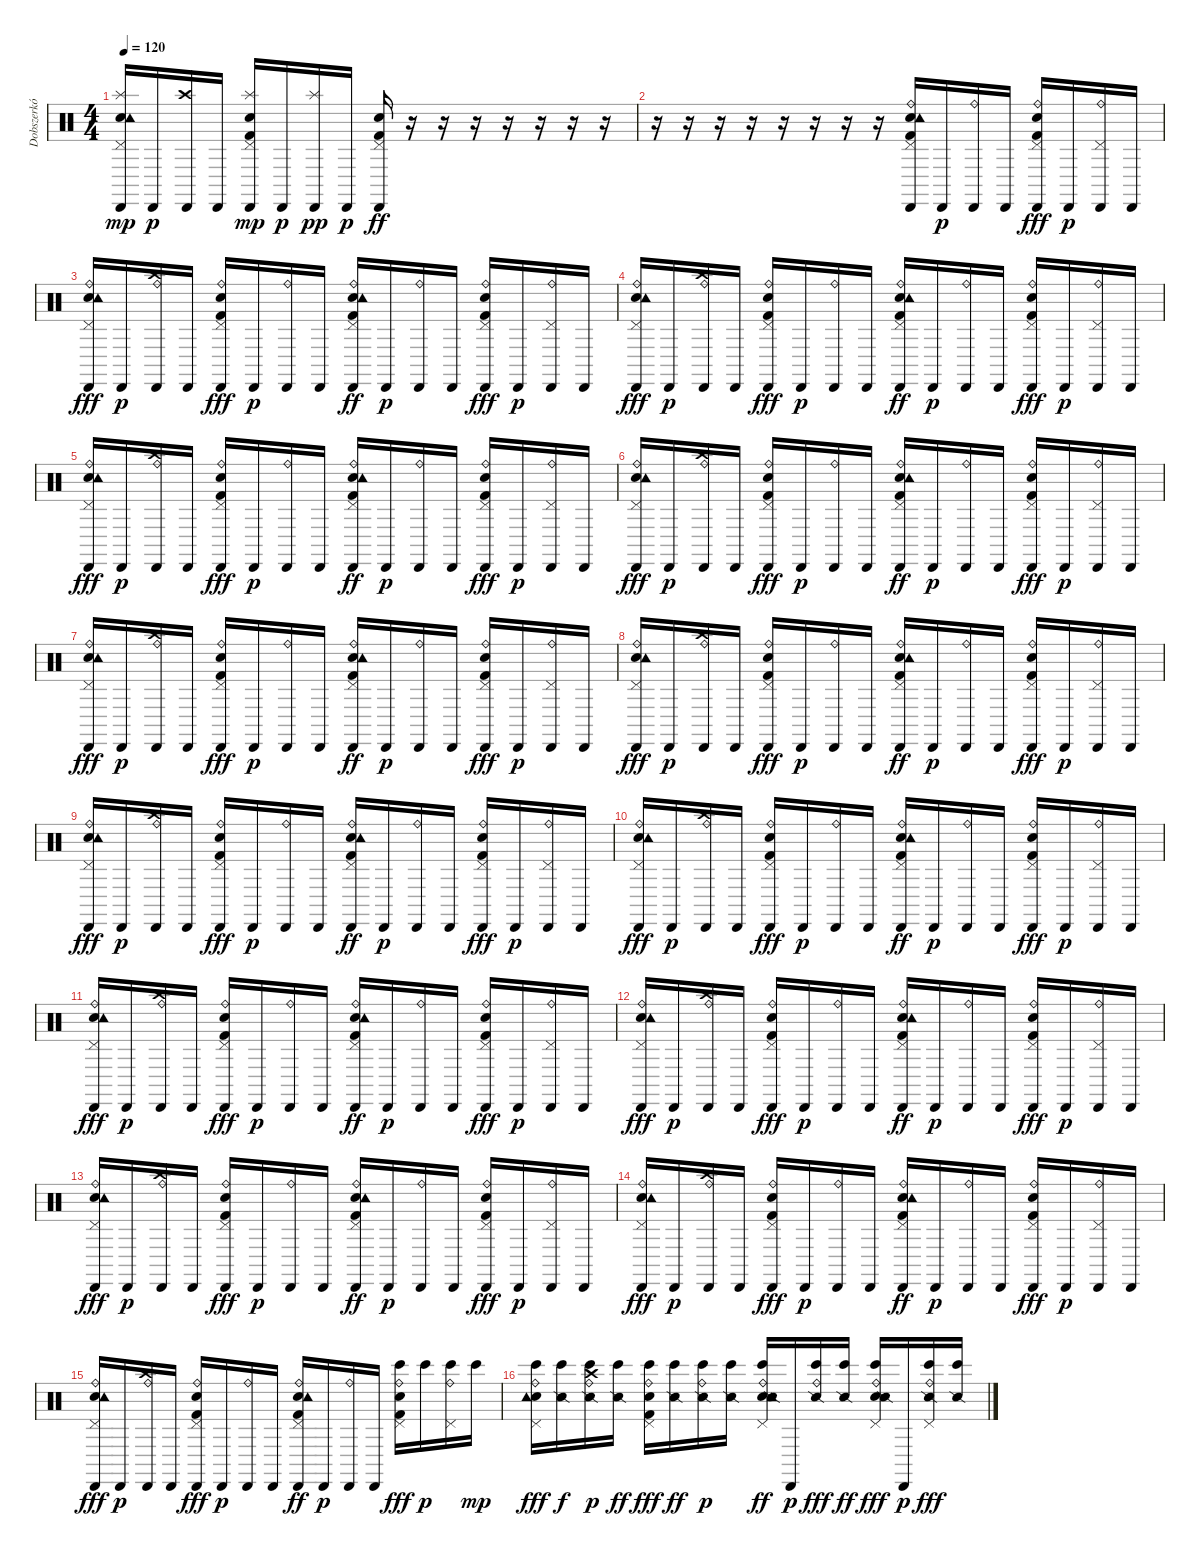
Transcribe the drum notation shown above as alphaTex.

\track ("Dobszerkó" "Dobszerkó") {instrument percussion}
\staff {score}
\articulation defaults
\ts (4 4)
\tempo 120
\clef neutral
\ks c
("Cabasa (hit)" "Snare (hit) 2" "Tambourine (hit)" "Pedal Hi-Hat (hit)" "Splash (hit)").16{dy mp} "Cabasa (hit)".16{dy p} ("Cabasa (hit)" "Crash high (hit)").16 "Cabasa (hit)".16 ("Electric Snare (hit)" "Cabasa (hit)" "Kick (hit) 2" "Pedal Hi-Hat (hit)" "Splash (hit)").16{dy mp} "Cabasa (hit)".16{dy p} ("Cabasa (hit)" "Splash (hit)").16{dy pp} "Cabasa (hit)".16{dy p} ("Snare (hit) 2" "Cabasa (hit)" "Kick (hit) 2" "Pedal Hi-Hat (hit)").16{dy ff} r.16 r.16 r.16 r.16 r.16 r.16 r.16 |
r.16 r.16 r.16 r.16 r.16 r.16 r.16 r.16 ("Snare (hit) 2" "Cabasa (hit)" "Kick (hit) 2" "Tambourine (hit)" "Pedal Hi-Hat (hit)" "Ride (bell)").16 "Cabasa (hit)".16{dy p} ("Cabasa (hit)" "Ride (bell)").16 "Cabasa (hit)".16 ("Electric Snare (hit)" "Cabasa (hit)" "Kick (hit) 2" "Pedal Hi-Hat (hit)" "Ride (bell)").16{dy fff} "Cabasa (hit)".16{dy p} ("Cabasa (hit)" "Pedal Hi-Hat (hit)" "Ride (bell)").16 "Cabasa (hit)".16 |
("Cabasa (hit)" "Snare (hit) 2" "Tambourine (hit)" "Pedal Hi-Hat (hit)" "Ride (bell)").16{dy fff} "Cabasa (hit)".16{dy p} ("Cabasa (hit)" "Crash high (hit)" "Ride (bell)").16 "Cabasa (hit)".16 ("Electric Snare (hit)" "Cabasa (hit)" "Kick (hit) 2" "Pedal Hi-Hat (hit)" "Ride (bell)").16{dy fff} "Cabasa (hit)".16{dy p} ("Cabasa (hit)" "Ride (bell)").16 "Cabasa (hit)".16 ("Snare (hit) 2" "Cabasa (hit)" "Kick (hit) 2" "Tambourine (hit)" "Pedal Hi-Hat (hit)" "Ride (bell)").16{dy ff} "Cabasa (hit)".16{dy p} ("Cabasa (hit)" "Ride (bell)").16 "Cabasa (hit)".16 ("Electric Snare (hit)" "Cabasa (hit)" "Kick (hit) 2" "Pedal Hi-Hat (hit)" "Ride (bell)").16{dy fff} "Cabasa (hit)".16{dy p} ("Cabasa (hit)" "Pedal Hi-Hat (hit)" "Ride (bell)").16 "Cabasa (hit)".16 |
("Cabasa (hit)" "Snare (hit) 2" "Tambourine (hit)" "Pedal Hi-Hat (hit)" "Ride (bell)").16{dy fff} "Cabasa (hit)".16{dy p} ("Cabasa (hit)" "Crash high (hit)" "Ride (bell)").16 "Cabasa (hit)".16 ("Electric Snare (hit)" "Cabasa (hit)" "Kick (hit) 2" "Pedal Hi-Hat (hit)" "Ride (bell)").16{dy fff} "Cabasa (hit)".16{dy p} ("Cabasa (hit)" "Ride (bell)").16 "Cabasa (hit)".16 ("Snare (hit) 2" "Cabasa (hit)" "Kick (hit) 2" "Tambourine (hit)" "Pedal Hi-Hat (hit)" "Ride (bell)").16{dy ff} "Cabasa (hit)".16{dy p} ("Cabasa (hit)" "Ride (bell)").16 "Cabasa (hit)".16 ("Electric Snare (hit)" "Cabasa (hit)" "Kick (hit) 2" "Pedal Hi-Hat (hit)" "Ride (bell)").16{dy fff} "Cabasa (hit)".16{dy p} ("Cabasa (hit)" "Pedal Hi-Hat (hit)" "Ride (bell)").16 "Cabasa (hit)".16 |
("Cabasa (hit)" "Snare (hit) 2" "Tambourine (hit)" "Pedal Hi-Hat (hit)" "Ride (bell)").16{dy fff} "Cabasa (hit)".16{dy p} ("Cabasa (hit)" "Crash high (hit)" "Ride (bell)").16 "Cabasa (hit)".16 ("Electric Snare (hit)" "Cabasa (hit)" "Kick (hit) 2" "Pedal Hi-Hat (hit)" "Ride (bell)").16{dy fff} "Cabasa (hit)".16{dy p} ("Cabasa (hit)" "Ride (bell)").16 "Cabasa (hit)".16 ("Snare (hit) 2" "Cabasa (hit)" "Kick (hit) 2" "Tambourine (hit)" "Pedal Hi-Hat (hit)" "Ride (bell)").16{dy ff} "Cabasa (hit)".16{dy p} ("Cabasa (hit)" "Ride (bell)").16 "Cabasa (hit)".16 ("Electric Snare (hit)" "Cabasa (hit)" "Kick (hit) 2" "Pedal Hi-Hat (hit)" "Ride (bell)").16{dy fff} "Cabasa (hit)".16{dy p} ("Cabasa (hit)" "Pedal Hi-Hat (hit)" "Ride (bell)").16 "Cabasa (hit)".16 |
("Cabasa (hit)" "Snare (hit) 2" "Tambourine (hit)" "Pedal Hi-Hat (hit)" "Ride (bell)").16{dy fff} "Cabasa (hit)".16{dy p} ("Cabasa (hit)" "Crash high (hit)" "Ride (bell)").16 "Cabasa (hit)".16 ("Electric Snare (hit)" "Cabasa (hit)" "Kick (hit) 2" "Pedal Hi-Hat (hit)" "Ride (bell)").16{dy fff} "Cabasa (hit)".16{dy p} ("Cabasa (hit)" "Ride (bell)").16 "Cabasa (hit)".16 ("Snare (hit) 2" "Cabasa (hit)" "Kick (hit) 2" "Tambourine (hit)" "Pedal Hi-Hat (hit)" "Ride (bell)").16{dy ff} "Cabasa (hit)".16{dy p} ("Cabasa (hit)" "Ride (bell)").16 "Cabasa (hit)".16 ("Electric Snare (hit)" "Cabasa (hit)" "Kick (hit) 2" "Pedal Hi-Hat (hit)" "Ride (bell)").16{dy fff} "Cabasa (hit)".16{dy p} ("Cabasa (hit)" "Pedal Hi-Hat (hit)" "Ride (bell)").16 "Cabasa (hit)".16 |
("Cabasa (hit)" "Snare (hit) 2" "Tambourine (hit)" "Pedal Hi-Hat (hit)" "Ride (bell)").16{dy fff} "Cabasa (hit)".16{dy p} ("Cabasa (hit)" "Crash high (hit)" "Ride (bell)").16 "Cabasa (hit)".16 ("Electric Snare (hit)" "Cabasa (hit)" "Kick (hit) 2" "Pedal Hi-Hat (hit)" "Ride (bell)").16{dy fff} "Cabasa (hit)".16{dy p} ("Cabasa (hit)" "Ride (bell)").16 "Cabasa (hit)".16 ("Snare (hit) 2" "Cabasa (hit)" "Kick (hit) 2" "Tambourine (hit)" "Pedal Hi-Hat (hit)" "Ride (bell)").16{dy ff} "Cabasa (hit)".16{dy p} ("Cabasa (hit)" "Ride (bell)").16 "Cabasa (hit)".16 ("Electric Snare (hit)" "Cabasa (hit)" "Kick (hit) 2" "Pedal Hi-Hat (hit)" "Ride (bell)").16{dy fff} "Cabasa (hit)".16{dy p} ("Cabasa (hit)" "Pedal Hi-Hat (hit)" "Ride (bell)").16 "Cabasa (hit)".16 |
("Cabasa (hit)" "Snare (hit) 2" "Tambourine (hit)" "Pedal Hi-Hat (hit)" "Ride (bell)").16{dy fff} "Cabasa (hit)".16{dy p} ("Cabasa (hit)" "Crash high (hit)" "Ride (bell)").16 "Cabasa (hit)".16 ("Electric Snare (hit)" "Cabasa (hit)" "Kick (hit) 2" "Pedal Hi-Hat (hit)" "Ride (bell)").16{dy fff} "Cabasa (hit)".16{dy p} ("Cabasa (hit)" "Ride (bell)").16 "Cabasa (hit)".16 ("Snare (hit) 2" "Cabasa (hit)" "Kick (hit) 2" "Tambourine (hit)" "Pedal Hi-Hat (hit)" "Ride (bell)").16{dy ff} "Cabasa (hit)".16{dy p} ("Cabasa (hit)" "Ride (bell)").16 "Cabasa (hit)".16 ("Electric Snare (hit)" "Cabasa (hit)" "Kick (hit) 2" "Pedal Hi-Hat (hit)" "Ride (bell)").16{dy fff} "Cabasa (hit)".16{dy p} ("Cabasa (hit)" "Pedal Hi-Hat (hit)" "Ride (bell)").16 "Cabasa (hit)".16 |
("Cabasa (hit)" "Snare (hit) 2" "Tambourine (hit)" "Pedal Hi-Hat (hit)" "Ride (bell)").16{dy fff} "Cabasa (hit)".16{dy p} ("Cabasa (hit)" "Crash high (hit)" "Ride (bell)").16 "Cabasa (hit)".16 ("Electric Snare (hit)" "Cabasa (hit)" "Kick (hit) 2" "Pedal Hi-Hat (hit)" "Ride (bell)").16{dy fff} "Cabasa (hit)".16{dy p} ("Cabasa (hit)" "Ride (bell)").16 "Cabasa (hit)".16 ("Snare (hit) 2" "Cabasa (hit)" "Kick (hit) 2" "Tambourine (hit)" "Pedal Hi-Hat (hit)" "Ride (bell)").16{dy ff} "Cabasa (hit)".16{dy p} ("Cabasa (hit)" "Ride (bell)").16 "Cabasa (hit)".16 ("Electric Snare (hit)" "Cabasa (hit)" "Kick (hit) 2" "Pedal Hi-Hat (hit)" "Ride (bell)").16{dy fff} "Cabasa (hit)".16{dy p} ("Cabasa (hit)" "Pedal Hi-Hat (hit)" "Ride (bell)").16 "Cabasa (hit)".16 |
("Cabasa (hit)" "Snare (hit) 2" "Tambourine (hit)" "Pedal Hi-Hat (hit)" "Ride (bell)").16{dy fff} "Cabasa (hit)".16{dy p} ("Cabasa (hit)" "Crash high (hit)" "Ride (bell)").16 "Cabasa (hit)".16 ("Electric Snare (hit)" "Cabasa (hit)" "Kick (hit) 2" "Pedal Hi-Hat (hit)" "Ride (bell)").16{dy fff} "Cabasa (hit)".16{dy p} ("Cabasa (hit)" "Ride (bell)").16 "Cabasa (hit)".16 ("Snare (hit) 2" "Cabasa (hit)" "Kick (hit) 2" "Tambourine (hit)" "Pedal Hi-Hat (hit)" "Ride (bell)").16{dy ff} "Cabasa (hit)".16{dy p} ("Cabasa (hit)" "Ride (bell)").16 "Cabasa (hit)".16 ("Electric Snare (hit)" "Cabasa (hit)" "Kick (hit) 2" "Pedal Hi-Hat (hit)" "Ride (bell)").16{dy fff} "Cabasa (hit)".16{dy p} ("Cabasa (hit)" "Pedal Hi-Hat (hit)" "Ride (bell)").16 "Cabasa (hit)".16 |
("Cabasa (hit)" "Snare (hit) 2" "Tambourine (hit)" "Pedal Hi-Hat (hit)" "Ride (bell)").16{dy fff} "Cabasa (hit)".16{dy p} ("Cabasa (hit)" "Crash high (hit)" "Ride (bell)").16 "Cabasa (hit)".16 ("Electric Snare (hit)" "Cabasa (hit)" "Kick (hit) 2" "Pedal Hi-Hat (hit)" "Ride (bell)").16{dy fff} "Cabasa (hit)".16{dy p} ("Cabasa (hit)" "Ride (bell)").16 "Cabasa (hit)".16 ("Snare (hit) 2" "Cabasa (hit)" "Kick (hit) 2" "Tambourine (hit)" "Pedal Hi-Hat (hit)" "Ride (bell)").16{dy ff} "Cabasa (hit)".16{dy p} ("Cabasa (hit)" "Ride (bell)").16 "Cabasa (hit)".16 ("Electric Snare (hit)" "Cabasa (hit)" "Kick (hit) 2" "Pedal Hi-Hat (hit)" "Ride (bell)").16{dy fff} "Cabasa (hit)".16{dy p} ("Cabasa (hit)" "Pedal Hi-Hat (hit)" "Ride (bell)").16 "Cabasa (hit)".16 |
("Cabasa (hit)" "Snare (hit) 2" "Tambourine (hit)" "Pedal Hi-Hat (hit)" "Ride (bell)").16{dy fff} "Cabasa (hit)".16{dy p} ("Cabasa (hit)" "Crash high (hit)" "Ride (bell)").16 "Cabasa (hit)".16 ("Electric Snare (hit)" "Cabasa (hit)" "Kick (hit) 2" "Pedal Hi-Hat (hit)" "Ride (bell)").16{dy fff} "Cabasa (hit)".16{dy p} ("Cabasa (hit)" "Ride (bell)").16 "Cabasa (hit)".16 ("Snare (hit) 2" "Cabasa (hit)" "Kick (hit) 2" "Tambourine (hit)" "Pedal Hi-Hat (hit)" "Ride (bell)").16{dy ff} "Cabasa (hit)".16{dy p} ("Cabasa (hit)" "Ride (bell)").16 "Cabasa (hit)".16 ("Electric Snare (hit)" "Cabasa (hit)" "Kick (hit) 2" "Pedal Hi-Hat (hit)" "Ride (bell)").16{dy fff} "Cabasa (hit)".16{dy p} ("Cabasa (hit)" "Pedal Hi-Hat (hit)" "Ride (bell)").16 "Cabasa (hit)".16 |
("Cabasa (hit)" "Snare (hit) 2" "Tambourine (hit)" "Pedal Hi-Hat (hit)" "Ride (bell)").16{dy fff} "Cabasa (hit)".16{dy p} ("Cabasa (hit)" "Crash high (hit)" "Ride (bell)").16 "Cabasa (hit)".16 ("Electric Snare (hit)" "Cabasa (hit)" "Kick (hit) 2" "Pedal Hi-Hat (hit)" "Ride (bell)").16{dy fff} "Cabasa (hit)".16{dy p} ("Cabasa (hit)" "Ride (bell)").16 "Cabasa (hit)".16 ("Snare (hit) 2" "Cabasa (hit)" "Kick (hit) 2" "Tambourine (hit)" "Pedal Hi-Hat (hit)" "Ride (bell)").16{dy ff} "Cabasa (hit)".16{dy p} ("Cabasa (hit)" "Ride (bell)").16 "Cabasa (hit)".16 ("Electric Snare (hit)" "Cabasa (hit)" "Kick (hit) 2" "Pedal Hi-Hat (hit)" "Ride (bell)").16{dy fff} "Cabasa (hit)".16{dy p} ("Cabasa (hit)" "Pedal Hi-Hat (hit)" "Ride (bell)").16 "Cabasa (hit)".16 |
("Cabasa (hit)" "Snare (hit) 2" "Tambourine (hit)" "Pedal Hi-Hat (hit)" "Ride (bell)").16{dy fff} "Cabasa (hit)".16{dy p} ("Cabasa (hit)" "Crash high (hit)" "Ride (bell)").16 "Cabasa (hit)".16 ("Electric Snare (hit)" "Cabasa (hit)" "Kick (hit) 2" "Pedal Hi-Hat (hit)" "Ride (bell)").16{dy fff} "Cabasa (hit)".16{dy p} ("Cabasa (hit)" "Ride (bell)").16 "Cabasa (hit)".16 ("Snare (hit) 2" "Cabasa (hit)" "Kick (hit) 2" "Tambourine (hit)" "Pedal Hi-Hat (hit)" "Ride (bell)").16{dy ff} "Cabasa (hit)".16{dy p} ("Cabasa (hit)" "Ride (bell)").16 "Cabasa (hit)".16 ("Electric Snare (hit)" "Cabasa (hit)" "Kick (hit) 2" "Pedal Hi-Hat (hit)" "Ride (bell)").16{dy fff} "Cabasa (hit)".16{dy p} ("Cabasa (hit)" "Pedal Hi-Hat (hit)" "Ride (bell)").16 "Cabasa (hit)".16 |
("Cabasa (hit)" "Snare (hit) 2" "Tambourine (hit)" "Pedal Hi-Hat (hit)" "Ride (bell)").16{dy fff} "Cabasa (hit)".16{dy p} ("Cabasa (hit)" "Crash high (hit)" "Ride (bell)").16 "Cabasa (hit)".16 ("Electric Snare (hit)" "Cabasa (hit)" "Kick (hit) 2" "Pedal Hi-Hat (hit)" "Ride (bell)").16{dy fff} "Cabasa (hit)".16{dy p} ("Cabasa (hit)" "Ride (bell)").16 "Cabasa (hit)".16 ("Snare (hit) 2" "Cabasa (hit)" "Kick (hit) 2" "Tambourine (hit)" "Pedal Hi-Hat (hit)" "Ride (bell)").16{dy ff} "Cabasa (hit)".16{dy p} ("Cabasa (hit)" "Ride (bell)").16 "Cabasa (hit)".16 ("Electric Snare (hit)" "Bongo High (hit)" "Kick (hit) 2" "Pedal Hi-Hat (hit)" "Ride (bell)").16{dy fff} "Bongo High (hit)".16{dy p} ("Bongo High (hit)" "Pedal Hi-Hat (hit)" "Ride (bell)").16 "Bongo High (hit)".16{dy mp} |
("Bongo High (hit)" "Snare (hit) 2" "Tambourine (hit)" "Pedal Hi-Hat (hit)" "Ride (bell)").16{dy fff} ("Bongo High (hit)" "Snare (side stick) 2").16{dy f} ("Bongo High (hit)" "Snare (side stick) 2" "Crash high (hit)" "Ride (bell)").16{dy p} ("Bongo High (hit)" "Snare (side stick) 2").16{dy ff} ("Electric Snare (hit)" "Bongo High (hit)" "Kick (hit) 2" "Pedal Hi-Hat (hit)" "Ride (bell)").16{dy fff} ("Bongo High (hit)" "Snare (side stick) 2").16{dy ff} ("Bongo High (hit)" "Snare (side stick) 2" "Ride (bell)").16{dy p} ("Bongo High (hit)" "Snare (side stick) 2").16 ("Snare (hit) 2" "Bongo High (hit)" "Snare (side stick) 2" "Tambourine (hit)" "Pedal Hi-Hat (hit)" "Ride (bell)").16{dy ff} "Cabasa (hit)".16{dy p} ("Bongo High (hit)" "Snare (side stick) 2" "Ride (bell)").16{dy fff} ("Bongo High (hit)" "Snare (side stick) 2").16{dy ff} ("Electric Snare (hit)" "Bongo High (hit)" "Snare (side stick) 2" "Pedal Hi-Hat (hit)" "Ride (bell)").16{dy fff} "Cabasa (hit)".16{dy p} ("Bongo High (hit)" "Snare (side stick) 2" "Pedal Hi-Hat (hit)" "Ride (bell)").16{dy fff} ("Bongo High (hit)" "Snare (side stick) 2").16
